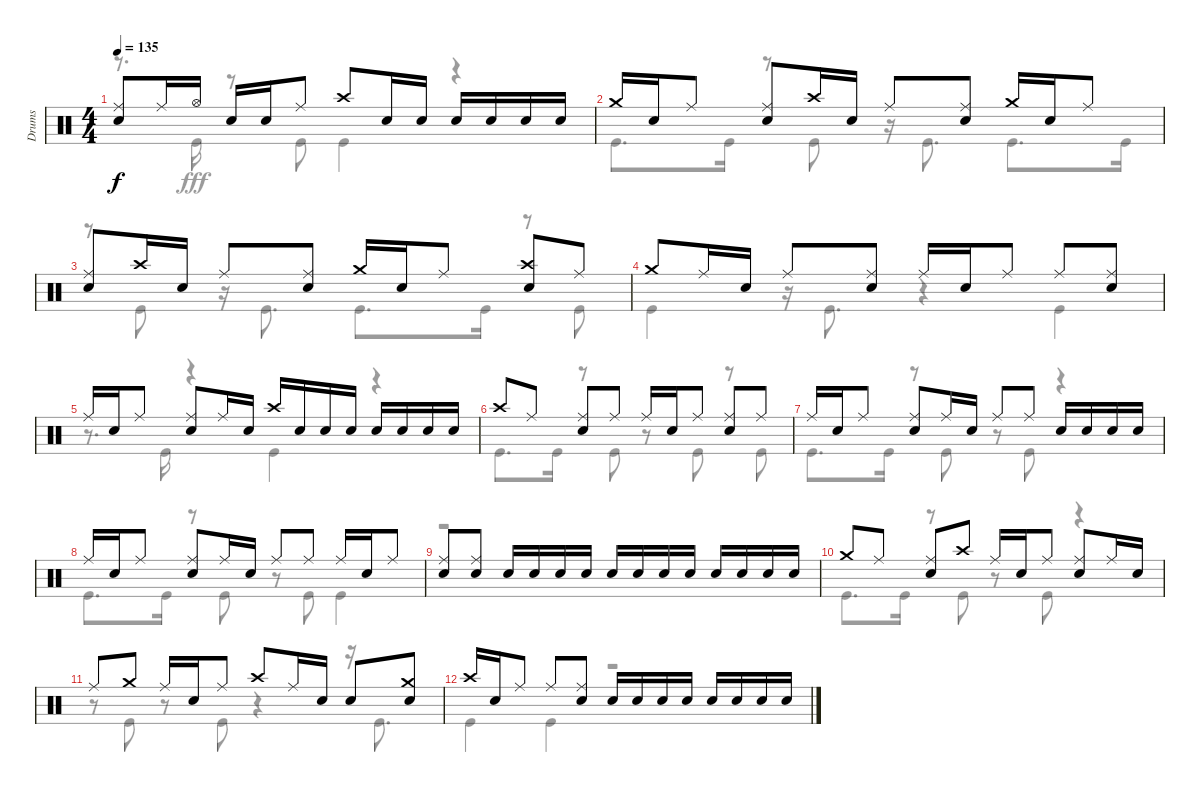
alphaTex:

\track ("Drums" "Drums") {instrument percussion}
\staff {score}
\articulation defaults
\voice
\ts (4 4)
\tempo 135
\clef neutral
\ks c
("Ride (middle)" "Snare (hit) 2").8{dy f} "Ride (middle)".16 "Hi-Hat (open)".16 "Snare (hit) 2".16 "Snare (hit) 2".16 "Ride (middle)".8 "Crash high (hit)".8 "Snare (hit) 2".16 "Snare (hit) 2".16 "Snare (hit) 2".16 "Snare (hit) 2".16 "Snare (hit) 2".16 "Snare (hit) 2".16 |
"Crash medium (hit)".16 "Snare (hit) 2".16 "Ride (middle)".8 ("Ride (middle)" "Snare (hit) 2").8 "Crash high (hit)".16 "Snare (hit) 2".16 "Ride (middle)".8 ("Ride (middle)" "Snare (hit) 2").8 "Crash medium (hit)".16 "Snare (hit) 2".16 "Ride (middle)".8 |
("Ride (middle)" "Snare (hit) 2").8 "Crash high (hit)".16 "Snare (hit) 2".16 "Ride (middle)".8 ("Ride (middle)" "Snare (hit) 2").8 "Crash medium (hit)".16 "Snare (hit) 2".16 "Ride (middle)".8 ("Crash high (hit)" "Snare (hit) 2").8 "Ride (middle)".8 |
"Crash medium (hit)".8 "Ride (middle)".16 "Snare (hit) 2".16 "Ride (middle)".8 ("Ride (middle)" "Snare (hit) 2").8 "Ride (middle)".16 "Snare (hit) 2".16 "Ride (middle)".8 "Ride (middle)".8 ("Ride (middle)" "Snare (hit) 2").8 |
"Ride (middle)".16 "Snare (hit) 2".16 "Ride (middle)".8 ("Ride (middle)" "Snare (hit) 2").8 "Ride (middle)".16 "Snare (hit) 2".16 "Crash high (hit)".16 "Snare (hit) 2".16 "Snare (hit) 2".16 "Snare (hit) 2".16 "Snare (hit) 2".16 "Snare (hit) 2".16 "Snare (hit) 2".16 "Snare (hit) 2".16 |
"Crash high (hit)".8 "Ride (middle)".8 ("Ride (middle)" "Snare (hit) 2").8 "Ride (middle)".8 "Ride (middle)".16 "Snare (hit) 2".16 "Ride (middle)".8 ("Ride (middle)" "Snare (hit) 2").8 "Ride (middle)".8 |
"Ride (middle)".16 "Snare (hit) 2".16 "Ride (middle)".8 ("Ride (middle)" "Snare (hit) 2").8 "Ride (middle)".16 "Snare (hit) 2".16 "Ride (middle)".8 "Ride (middle)".8 "Snare (hit) 2".16 "Snare (hit) 2".16 "Snare (hit) 2".16 "Snare (hit) 2".16 |
"Ride (middle)".16 "Snare (hit) 2".16 "Ride (middle)".8 ("Ride (middle)" "Snare (hit) 2").8 "Ride (middle)".16 "Snare (hit) 2".16 "Ride (middle)".8 "Ride (middle)".8 "Ride (middle)".16 "Snare (hit) 2".16 "Ride (middle)".8 |
("Ride (middle)" "Snare (hit) 2").8 ("Ride (middle)" "Snare (hit) 2").8 "Snare (hit) 2".16 "Snare (hit) 2".16 "Snare (hit) 2".16 "Snare (hit) 2".16 "Snare (hit) 2".16 "Snare (hit) 2".16 "Snare (hit) 2".16 "Snare (hit) 2".16 "Snare (hit) 2".16 "Snare (hit) 2".16 "Snare (hit) 2".16 "Snare (hit) 2".16 |
"Crash medium (hit)".8 "Ride (middle)".8 ("Ride (middle)" "Snare (hit) 2").8 "Crash high (hit)".8 "Ride (middle)".16 "Snare (hit) 2".16 "Ride (middle)".8 ("Ride (middle)" "Snare (hit) 2").8 "Ride (middle)".16 "Snare (hit) 2".16 |
"Ride (middle)".8 "Crash medium (hit)".8 "Ride (middle)".16 "Snare (hit) 2".16 "Ride (middle)".8 "Crash high (hit)".8 "Ride (middle)".16 "Snare (hit) 2".16 "Snare (hit) 2".8 ("Crash medium (hit)" "Snare (hit) 2").8 |
"Crash high (hit)".16 "Snare (hit) 2".16 "Ride (middle)".8 "Ride (middle)".8 ("Ride (middle)" "Snare (hit) 2").8 "Snare (hit) 2".16 "Snare (hit) 2".16 "Snare (hit) 2".16 "Snare (hit) 2".16 "Snare (hit) 2".16 "Snare (hit) 2".16 "Snare (hit) 2".16 "Snare (hit) 2".16
\voice
\clef neutral
\ottava regular
\simile none
\ks c
r.8{d dy fff} "Kick (hit)".16 r.8 "Kick (hit)".8 "Kick (hit)".4 r.4 |
"Kick (hit)".8{d} "Kick (hit)".16 r.8 "Kick (hit)".8 r.16 "Kick (hit)".8{d} "Kick (hit)".8{d} "Kick (hit)".16 |
r.8 "Kick (hit)".8 r.16 "Kick (hit)".8{d} "Kick (hit)".8{d} "Kick (hit)".16 r.8 "Kick (hit)".8 |
"Kick (hit)".4 r.16 "Kick (hit)".8{d} r.4 "Kick (hit)".4 |
r.8{d} "Kick (hit)".16 r.4 "Kick (hit)".4 r.4 |
"Kick (hit)".8{d} "Kick (hit)".16 r.8 "Kick (hit)".8 r.8 "Kick (hit)".8 r.8 "Kick (hit)".8 |
"Kick (hit)".8{d} "Kick (hit)".16 r.8 "Kick (hit)".8 r.8 "Kick (hit)".8 r.4 |
"Kick (hit)".8{d} "Kick (hit)".16 r.8 "Kick (hit)".8 r.8 "Kick (hit)".8 "Kick (hit)".4 |
r.1 |
"Kick (hit)".8{d} "Kick (hit)".16 r.8 "Kick (hit)".8 r.8 "Kick (hit)".8 r.4 |
r.8 "Kick (hit)".8 r.8 "Kick (hit)".8 r.4 r.16 "Kick (hit)".8{d} |
"Kick (hit)".4 "Kick (hit)".4 r.2
